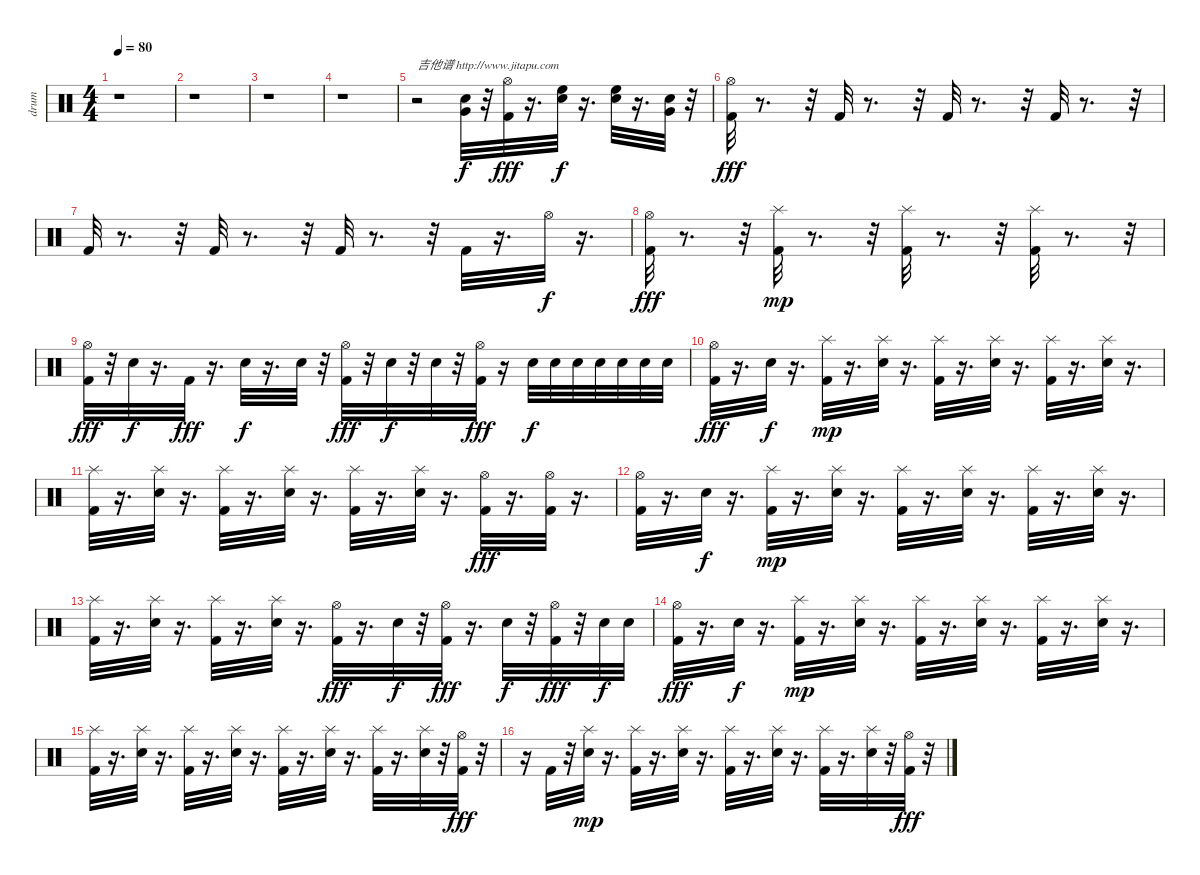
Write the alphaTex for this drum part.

\track ("drum" "drum") {instrument percussion}
\staff {score}
\articulation defaults
\ts (4 4)
\tempo 80
\clef neutral
\ks c
r.1{dy f} |
r.1 |
r.1 |
r.1 |
r.2{txt "吉他谱 http://www.jitapu.com"} ("Snare (hit) 2" "Very Low Tom (hit)").32 r.32 ("Hi-Hat (open)" "Kick (hit) 2").32{dy fff} r.16{d} ("High Floor Tom (hit)" "Snare (hit) 2").32{dy f} r.16{d} ("Snare (hit) 2" "High Floor Tom (hit)").32 r.16{d} ("Snare (hit) 2" "Very Low Tom (hit)").32 r.32 |
("Kick (hit) 2" "Hi-Hat (open)").32{dy fff} r.8{d} r.32 "Kick (hit) 2".32 r.8{d} r.32 "Kick (hit) 2".32 r.8{d} r.32 "Kick (hit) 2".32 r.8{d} r.32 |
"Kick (hit) 2".32 r.8{d} r.32 "Kick (hit) 2".32 r.8{d} r.32 "Kick (hit) 2".32 r.8{d} r.32 "Kick (hit) 2".32 r.16{d} "Hi-Hat (open)".32{dy f} r.16{d} |
("Kick (hit) 2" "Hi-Hat (open)").32{dy fff} r.8{d} r.32 ("Kick (hit) 2" "Splash (hit)").32{dy mp} r.8{d} r.32 ("Kick (hit) 2" "Splash (hit)").32 r.8{d} r.32 ("Kick (hit) 2" "Splash (hit)").32 r.8{d} r.32 |
("Kick (hit) 2" "Hi-Hat (open)").32{dy fff} r.32 "Snare (hit) 2".32{dy f} r.16{d} "Kick (hit) 2".32{dy fff} r.16{d} "Snare (hit) 2".32{dy f} r.16{d} "Snare (hit) 2".32 r.32 ("Kick (hit) 2" "Hi-Hat (open)").32{dy fff} r.32 "Snare (hit) 2".32{dy f} r.32 "Snare (hit) 2".32 r.32 ("Kick (hit) 2" "Hi-Hat (open)").32{dy fff} r.16 "Snare (hit) 2".32{dy f} "Snare (hit) 2".32 "Snare (hit) 2".32 "Snare (hit) 2".32 "Snare (hit) 2".32 "Snare (hit) 2".32 "Snare (hit) 2".32 |
("Kick (hit) 2" "Hi-Hat (open)").32{dy fff} r.16{d} "Snare (hit) 2".32{dy f} r.16{d} ("Kick (hit) 2" "Splash (hit)").32{dy mp} r.16{d} ("Snare (hit) 2" "Splash (hit)").32 r.16{d} ("Kick (hit) 2" "Splash (hit)").32 r.16{d} ("Snare (hit) 2" "Splash (hit)").32 r.16{d} ("Kick (hit) 2" "Splash (hit)").32 r.16{d} ("Snare (hit) 2" "Splash (hit)").32 r.16{d} |
("Kick (hit) 2" "Splash (hit)").32 r.16{d} ("Snare (hit) 2" "Splash (hit)").32 r.16{d} ("Kick (hit) 2" "Splash (hit)").32 r.16{d} ("Snare (hit) 2" "Splash (hit)").32 r.16{d} ("Kick (hit) 2" "Splash (hit)").32 r.16{d} ("Snare (hit) 2" "Splash (hit)").32 r.16{d} ("Kick (hit) 2" "Hi-Hat (open)").32{dy fff} r.16{d} ("Kick (hit) 2" "Hi-Hat (open)").32 r.16{d} |
("Kick (hit) 2" "Hi-Hat (open)").32 r.16{d} "Snare (hit) 2".32{dy f} r.16{d} ("Kick (hit) 2" "Splash (hit)").32{dy mp} r.16{d} ("Snare (hit) 2" "Splash (hit)").32 r.16{d} ("Kick (hit) 2" "Splash (hit)").32 r.16{d} ("Snare (hit) 2" "Splash (hit)").32 r.16{d} ("Kick (hit) 2" "Splash (hit)").32 r.16{d} ("Snare (hit) 2" "Splash (hit)").32 r.16{d} |
("Kick (hit) 2" "Splash (hit)").32 r.16{d} ("Snare (hit) 2" "Splash (hit)").32 r.16{d} ("Kick (hit) 2" "Splash (hit)").32 r.16{d} ("Snare (hit) 2" "Splash (hit)").32 r.16{d} ("Kick (hit) 2" "Hi-Hat (open)").32{dy fff} r.16{d} "Snare (hit) 2".32{dy f} r.32 ("Kick (hit) 2" "Hi-Hat (open)").32{dy fff} r.16{d} "Snare (hit) 2".32{dy f} r.32 ("Kick (hit) 2" "Hi-Hat (open)").32{dy fff} r.32 "Snare (hit) 2".32{dy f} "Snare (hit) 2".32 |
("Kick (hit) 2" "Hi-Hat (open)").32{dy fff} r.16{d} "Snare (hit) 2".32{dy f} r.16{d} ("Kick (hit) 2" "Splash (hit)").32{dy mp} r.16{d} ("Snare (hit) 2" "Splash (hit)").32 r.16{d} ("Kick (hit) 2" "Splash (hit)").32 r.16{d} ("Snare (hit) 2" "Splash (hit)").32 r.16{d} ("Kick (hit) 2" "Splash (hit)").32 r.16{d} ("Snare (hit) 2" "Splash (hit)").32 r.16{d} |
("Kick (hit) 2" "Splash (hit)").32 r.16{d} ("Snare (hit) 2" "Splash (hit)").32 r.16{d} ("Kick (hit) 2" "Splash (hit)").32 r.16{d} ("Snare (hit) 2" "Splash (hit)").32 r.16{d} ("Kick (hit) 2" "Splash (hit)").32 r.16{d} ("Snare (hit) 2" "Splash (hit)").32 r.16{d} ("Kick (hit) 2" "Splash (hit)").32 r.16{d} ("Snare (hit) 2" "Splash (hit)").32 r.32 ("Kick (hit) 2" "Hi-Hat (open)").32{dy fff} r.32 |
r.16 "Kick (hit) 2".32 r.32 ("Snare (hit) 2" "Splash (hit)").32{dy mp} r.16{d} ("Kick (hit) 2" "Splash (hit)").32 r.16{d} ("Snare (hit) 2" "Splash (hit)").32 r.16{d} ("Kick (hit) 2" "Splash (hit)").32 r.16{d} ("Snare (hit) 2" "Splash (hit)").32 r.16{d} ("Kick (hit) 2" "Splash (hit)").32 r.16{d} ("Snare (hit) 2" "Splash (hit)").32 r.32 ("Kick (hit) 2" "Hi-Hat (open)").32{dy fff} r.32
